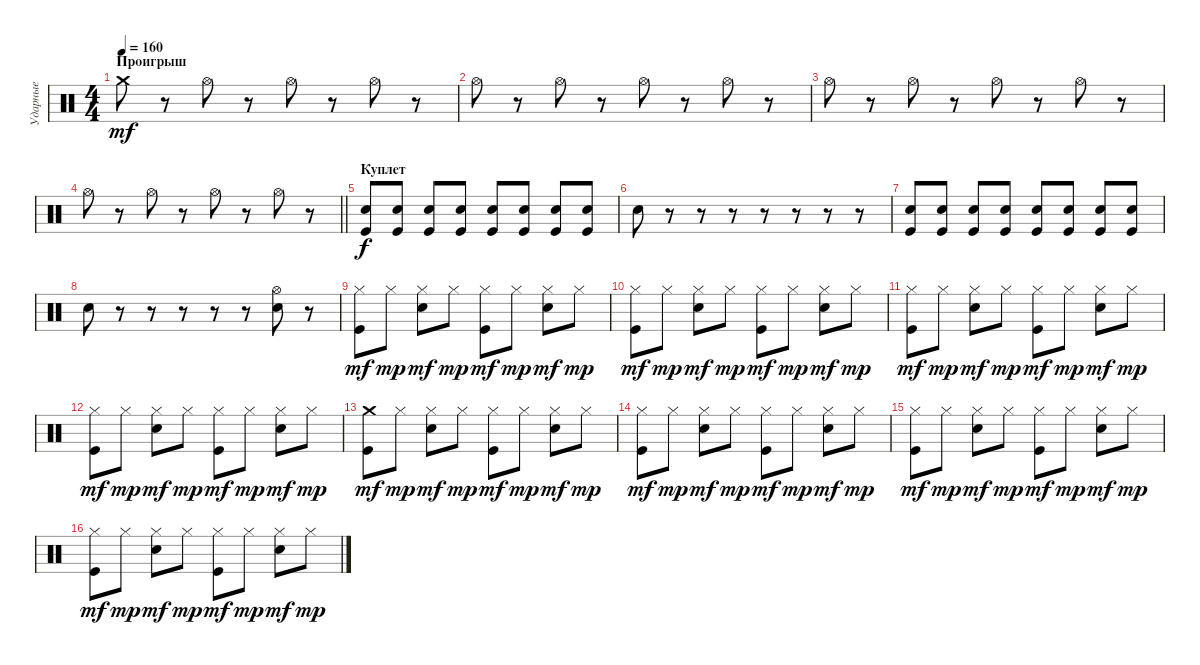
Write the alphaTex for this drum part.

\track ("Ударные" "Ударные") {instrument percussion}
\staff {score}
\articulation defaults
\ts (4 4)
\section ("" "Проигрыш")
\tempo 160
\clef neutral
\ks c "Crash medium (hit)".8{dy mf}
r.8 "Hi-Hat (open)".8 r.8 "Hi-Hat (open)".8 r.8 "Hi-Hat (open)".8 r.8 |
"Hi-Hat (open)".8 r.8 "Hi-Hat (open)".8 r.8 "Hi-Hat (open)".8 r.8 "Hi-Hat (open)".8 r.8 |
"Hi-Hat (open)".8 r.8 "Hi-Hat (open)".8 r.8 "Hi-Hat (open)".8 r.8 "Hi-Hat (open)".8 r.8 |
\barLineRight lightlight "Hi-Hat (open)".8
r.8 "Hi-Hat (open)".8 r.8 "Hi-Hat (open)".8 r.8 "Hi-Hat (open)".8 r.8 |
\section ("" "Куплет")
("Electric Snare (hit)" "Kick (hit)").8{dy f} ("Electric Snare (hit)" "Kick (hit)").8 ("Electric Snare (hit)" "Kick (hit)").8 ("Electric Snare (hit)" "Kick (hit)").8 ("Electric Snare (hit)" "Kick (hit)").8 ("Electric Snare (hit)" "Kick (hit)").8 ("Electric Snare (hit)" "Kick (hit)").8 ("Electric Snare (hit)" "Kick (hit)").8 |
"Electric Snare (hit)".8 r.8 r.8 r.8 r.8 r.8 r.8 r.8 |
("Electric Snare (hit)" "Kick (hit)").8 ("Electric Snare (hit)" "Kick (hit)").8 ("Electric Snare (hit)" "Kick (hit)").8 ("Electric Snare (hit)" "Kick (hit)").8 ("Electric Snare (hit)" "Kick (hit)").8 ("Electric Snare (hit)" "Kick (hit)").8 ("Electric Snare (hit)" "Kick (hit)").8 ("Electric Snare (hit)" "Kick (hit)").8 |
"Electric Snare (hit)".8 r.8 r.8 r.8 r.8 r.8 ("Hi-Hat (open)" "Electric Snare (hit)").8 r.8 |
("Hi-Hat (closed)" "Kick (hit)").8{dy mf} "Hi-Hat (closed)".8{dy mp} ("Hi-Hat (closed)" "Electric Snare (hit)").8{dy mf} "Hi-Hat (closed)".8{dy mp} ("Hi-Hat (closed)" "Kick (hit)").8{dy mf} "Hi-Hat (closed)".8{dy mp} ("Hi-Hat (closed)" "Electric Snare (hit)").8{dy mf} "Hi-Hat (closed)".8{dy mp} |
("Hi-Hat (closed)" "Kick (hit)").8{dy mf} "Hi-Hat (closed)".8{dy mp} ("Hi-Hat (closed)" "Electric Snare (hit)").8{dy mf} "Hi-Hat (closed)".8{dy mp} ("Hi-Hat (closed)" "Kick (hit)").8{dy mf} "Hi-Hat (closed)".8{dy mp} ("Hi-Hat (closed)" "Electric Snare (hit)").8{dy mf} "Hi-Hat (closed)".8{dy mp} |
("Hi-Hat (closed)" "Kick (hit)").8{dy mf} "Hi-Hat (closed)".8{dy mp} ("Hi-Hat (closed)" "Electric Snare (hit)").8{dy mf} "Hi-Hat (closed)".8{dy mp} ("Hi-Hat (closed)" "Kick (hit)").8{dy mf} "Hi-Hat (closed)".8{dy mp} ("Hi-Hat (closed)" "Electric Snare (hit)").8{dy mf} "Hi-Hat (closed)".8{dy mp} |
("Hi-Hat (closed)" "Kick (hit)").8{dy mf} "Hi-Hat (closed)".8{dy mp} ("Hi-Hat (closed)" "Electric Snare (hit)").8{dy mf} "Hi-Hat (closed)".8{dy mp} ("Hi-Hat (closed)" "Kick (hit)").8{dy mf} "Hi-Hat (closed)".8{dy mp} ("Hi-Hat (closed)" "Electric Snare (hit)").8{dy mf} "Hi-Hat (closed)".8{dy mp} |
("Crash medium (hit)" "Kick (hit)").8{dy mf} "Hi-Hat (closed)".8{dy mp} ("Hi-Hat (closed)" "Electric Snare (hit)").8{dy mf} "Hi-Hat (closed)".8{dy mp} ("Hi-Hat (closed)" "Kick (hit)").8{dy mf} "Hi-Hat (closed)".8{dy mp} ("Hi-Hat (closed)" "Electric Snare (hit)").8{dy mf} "Hi-Hat (closed)".8{dy mp} |
("Hi-Hat (closed)" "Kick (hit)").8{dy mf} "Hi-Hat (closed)".8{dy mp} ("Hi-Hat (closed)" "Electric Snare (hit)").8{dy mf} "Hi-Hat (closed)".8{dy mp} ("Hi-Hat (closed)" "Kick (hit)").8{dy mf} "Hi-Hat (closed)".8{dy mp} ("Hi-Hat (closed)" "Electric Snare (hit)").8{dy mf} "Hi-Hat (closed)".8{dy mp} |
("Hi-Hat (closed)" "Kick (hit)").8{dy mf} "Hi-Hat (closed)".8{dy mp} ("Hi-Hat (closed)" "Electric Snare (hit)").8{dy mf} "Hi-Hat (closed)".8{dy mp} ("Hi-Hat (closed)" "Kick (hit)").8{dy mf} "Hi-Hat (closed)".8{dy mp} ("Hi-Hat (closed)" "Electric Snare (hit)").8{dy mf} "Hi-Hat (closed)".8{dy mp} |
("Hi-Hat (closed)" "Kick (hit)").8{dy mf} "Hi-Hat (closed)".8{dy mp} ("Hi-Hat (closed)" "Electric Snare (hit)").8{dy mf} "Hi-Hat (closed)".8{dy mp} ("Hi-Hat (closed)" "Kick (hit)").8{dy mf} "Hi-Hat (closed)".8{dy mp} ("Hi-Hat (closed)" "Electric Snare (hit)").8{dy mf} "Hi-Hat (closed)".8{dy mp}
